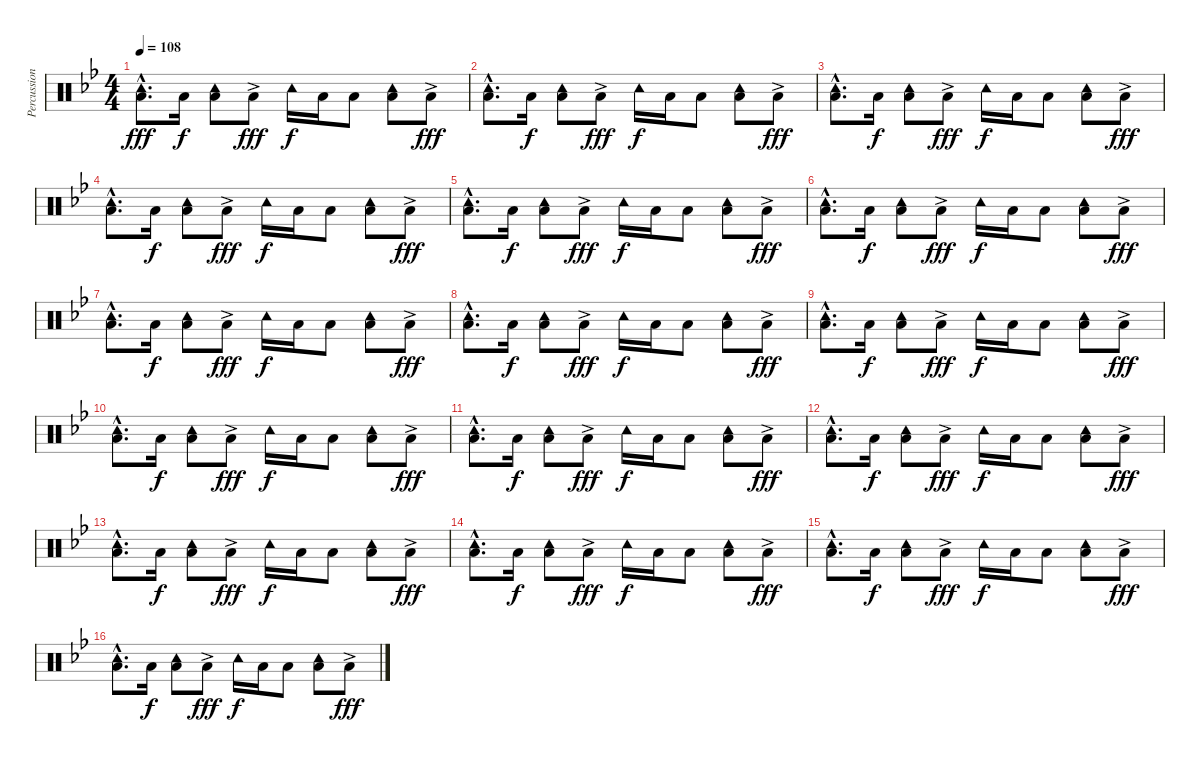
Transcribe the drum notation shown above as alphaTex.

\track ("Percussion" "Percussion") {instrument percussion}
\staff {score}
\articulation defaults
\ts (4 4)
\tempo 108
\clef neutral
\ks bb
("Tambourine (hit)"{hac} "Low Tom (hit)"{hac}).8{d dy fff} "Low Tom (hit)".16{dy f} ("Tambourine (hit)" "Low Tom (hit)").8 "Low Tom (hit)"{ac}.8{dy fff} "Tambourine (hit)".16{dy f} "Low Tom (hit)".16 "Low Tom (hit)".8 ("Tambourine (hit)" "Low Tom (hit)").8 "Low Tom (hit)"{ac}.8{dy fff} |
("Tambourine (hit)"{hac} "Low Tom (hit)"{hac}).8{d} "Low Tom (hit)".16{dy f} ("Tambourine (hit)" "Low Tom (hit)").8 "Low Tom (hit)"{ac}.8{dy fff} "Tambourine (hit)".16{dy f} "Low Tom (hit)".16 "Low Tom (hit)".8 ("Tambourine (hit)" "Low Tom (hit)").8 "Low Tom (hit)"{ac}.8{dy fff} |
("Tambourine (hit)"{hac} "Low Tom (hit)"{hac}).8{d} "Low Tom (hit)".16{dy f} ("Tambourine (hit)" "Low Tom (hit)").8 "Low Tom (hit)"{ac}.8{dy fff} "Tambourine (hit)".16{dy f} "Low Tom (hit)".16 "Low Tom (hit)".8 ("Tambourine (hit)" "Low Tom (hit)").8 "Low Tom (hit)"{ac}.8{dy fff} |
("Tambourine (hit)"{hac} "Low Tom (hit)"{hac}).8{d} "Low Tom (hit)".16{dy f} ("Tambourine (hit)" "Low Tom (hit)").8 "Low Tom (hit)"{ac}.8{dy fff} "Tambourine (hit)".16{dy f} "Low Tom (hit)".16 "Low Tom (hit)".8 ("Tambourine (hit)" "Low Tom (hit)").8 "Low Tom (hit)"{ac}.8{dy fff} |
("Tambourine (hit)"{hac} "Low Tom (hit)"{hac}).8{d} "Low Tom (hit)".16{dy f} ("Tambourine (hit)" "Low Tom (hit)").8 "Low Tom (hit)"{ac}.8{dy fff} "Tambourine (hit)".16{dy f} "Low Tom (hit)".16 "Low Tom (hit)".8 ("Tambourine (hit)" "Low Tom (hit)").8 "Low Tom (hit)"{ac}.8{dy fff} |
("Tambourine (hit)"{hac} "Low Tom (hit)"{hac}).8{d} "Low Tom (hit)".16{dy f} ("Tambourine (hit)" "Low Tom (hit)").8 "Low Tom (hit)"{ac}.8{dy fff} "Tambourine (hit)".16{dy f} "Low Tom (hit)".16 "Low Tom (hit)".8 ("Tambourine (hit)" "Low Tom (hit)").8 "Low Tom (hit)"{ac}.8{dy fff} |
("Tambourine (hit)"{hac} "Low Tom (hit)"{hac}).8{d} "Low Tom (hit)".16{dy f} ("Tambourine (hit)" "Low Tom (hit)").8 "Low Tom (hit)"{ac}.8{dy fff} "Tambourine (hit)".16{dy f} "Low Tom (hit)".16 "Low Tom (hit)".8 ("Tambourine (hit)" "Low Tom (hit)").8 "Low Tom (hit)"{ac}.8{dy fff} |
("Tambourine (hit)"{hac} "Low Tom (hit)"{hac}).8{d} "Low Tom (hit)".16{dy f} ("Tambourine (hit)" "Low Tom (hit)").8 "Low Tom (hit)"{ac}.8{dy fff} "Tambourine (hit)".16{dy f} "Low Tom (hit)".16 "Low Tom (hit)".8 ("Tambourine (hit)" "Low Tom (hit)").8 "Low Tom (hit)"{ac}.8{dy fff} |
("Tambourine (hit)"{hac} "Low Tom (hit)"{hac}).8{d} "Low Tom (hit)".16{dy f} ("Tambourine (hit)" "Low Tom (hit)").8 "Low Tom (hit)"{ac}.8{dy fff} "Tambourine (hit)".16{dy f} "Low Tom (hit)".16 "Low Tom (hit)".8 ("Tambourine (hit)" "Low Tom (hit)").8 "Low Tom (hit)"{ac}.8{dy fff} |
("Tambourine (hit)"{hac} "Low Tom (hit)"{hac}).8{d} "Low Tom (hit)".16{dy f} ("Tambourine (hit)" "Low Tom (hit)").8 "Low Tom (hit)"{ac}.8{dy fff} "Tambourine (hit)".16{dy f} "Low Tom (hit)".16 "Low Tom (hit)".8 ("Tambourine (hit)" "Low Tom (hit)").8 "Low Tom (hit)"{ac}.8{dy fff} |
("Tambourine (hit)"{hac} "Low Tom (hit)"{hac}).8{d} "Low Tom (hit)".16{dy f} ("Tambourine (hit)" "Low Tom (hit)").8 "Low Tom (hit)"{ac}.8{dy fff} "Tambourine (hit)".16{dy f} "Low Tom (hit)".16 "Low Tom (hit)".8 ("Tambourine (hit)" "Low Tom (hit)").8 "Low Tom (hit)"{ac}.8{dy fff} |
("Tambourine (hit)"{hac} "Low Tom (hit)"{hac}).8{d} "Low Tom (hit)".16{dy f} ("Tambourine (hit)" "Low Tom (hit)").8 "Low Tom (hit)"{ac}.8{dy fff} "Tambourine (hit)".16{dy f} "Low Tom (hit)".16 "Low Tom (hit)".8 ("Tambourine (hit)" "Low Tom (hit)").8 "Low Tom (hit)"{ac}.8{dy fff} |
("Tambourine (hit)"{hac} "Low Tom (hit)"{hac}).8{d} "Low Tom (hit)".16{dy f} ("Tambourine (hit)" "Low Tom (hit)").8 "Low Tom (hit)"{ac}.8{dy fff} "Tambourine (hit)".16{dy f} "Low Tom (hit)".16 "Low Tom (hit)".8 ("Tambourine (hit)" "Low Tom (hit)").8 "Low Tom (hit)"{ac}.8{dy fff} |
("Tambourine (hit)"{hac} "Low Tom (hit)"{hac}).8{d} "Low Tom (hit)".16{dy f} ("Tambourine (hit)" "Low Tom (hit)").8 "Low Tom (hit)"{ac}.8{dy fff} "Tambourine (hit)".16{dy f} "Low Tom (hit)".16 "Low Tom (hit)".8 ("Tambourine (hit)" "Low Tom (hit)").8 "Low Tom (hit)"{ac}.8{dy fff} |
("Tambourine (hit)"{hac} "Low Tom (hit)"{hac}).8{d} "Low Tom (hit)".16{dy f} ("Tambourine (hit)" "Low Tom (hit)").8 "Low Tom (hit)"{ac}.8{dy fff} "Tambourine (hit)".16{dy f} "Low Tom (hit)".16 "Low Tom (hit)".8 ("Tambourine (hit)" "Low Tom (hit)").8 "Low Tom (hit)"{ac}.8{dy fff} |
("Tambourine (hit)"{hac} "Low Tom (hit)"{hac}).8{d} "Low Tom (hit)".16{dy f} ("Tambourine (hit)" "Low Tom (hit)").8 "Low Tom (hit)"{ac}.8{dy fff} "Tambourine (hit)".16{dy f} "Low Tom (hit)".16 "Low Tom (hit)".8 ("Tambourine (hit)" "Low Tom (hit)").8 "Low Tom (hit)"{ac}.8{dy fff}
